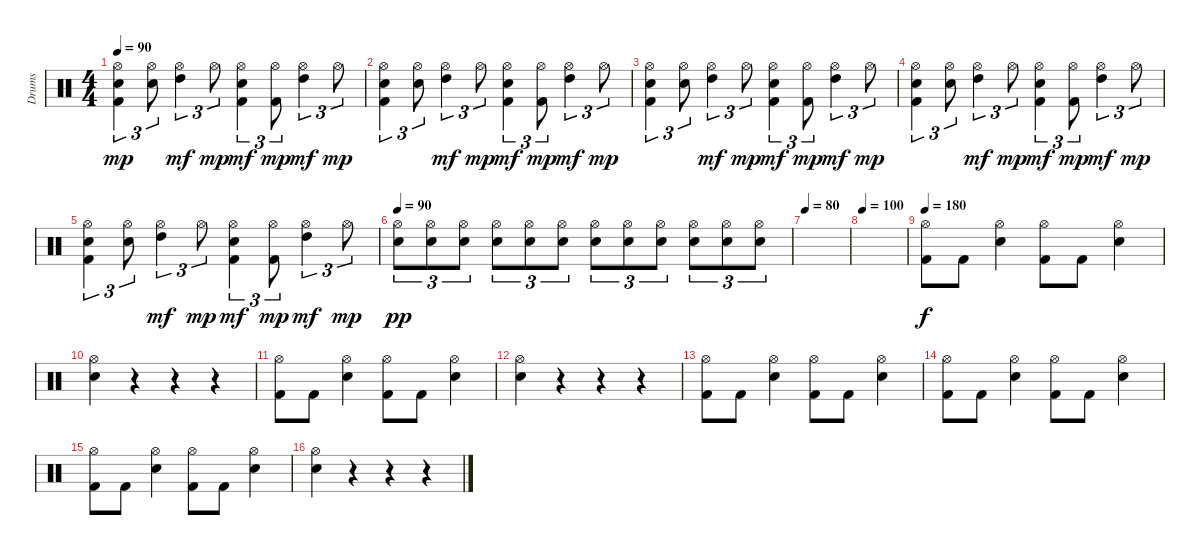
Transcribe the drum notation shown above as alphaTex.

\track ("Drums" "Drums") {instrument percussion}
\staff {score}
\articulation defaults
\ts (4 4)
\tempo 90
\clef neutral
\ks c
("Hi-Hat (open)" "Snare (hit) 2" "Kick (hit) 2").4{tu (3 2) dy mp} ("Hi-Hat (open)" "Snare (hit) 2").8{tu (3 2)} ("Hi-Hat (open)" "High Tom (hit)").4{tu (3 2) dy mf} "Hi-Hat (open)".8{tu (3 2) dy mp} ("Hi-Hat (open)" "Snare (hit) 2" "Kick (hit) 2").4{tu (3 2) dy mf} ("Hi-Hat (open)" "Kick (hit) 2").8{tu (3 2) dy mp} ("Hi-Hat (open)" "High Tom (hit)").4{tu (3 2) dy mf} "Hi-Hat (open)".8{tu (3 2) dy mp} |
("Hi-Hat (open)" "Snare (hit) 2" "Kick (hit) 2").4{tu (3 2)} ("Hi-Hat (open)" "Snare (hit) 2").8{tu (3 2)} ("Hi-Hat (open)" "High Tom (hit)").4{tu (3 2) dy mf} "Hi-Hat (open)".8{tu (3 2) dy mp} ("Hi-Hat (open)" "Snare (hit) 2" "Kick (hit) 2").4{tu (3 2) dy mf} ("Hi-Hat (open)" "Kick (hit) 2").8{tu (3 2) dy mp} ("Hi-Hat (open)" "High Tom (hit)").4{tu (3 2) dy mf} "Hi-Hat (open)".8{tu (3 2) dy mp} |
("Hi-Hat (open)" "Snare (hit) 2" "Kick (hit) 2").4{tu (3 2)} ("Hi-Hat (open)" "Snare (hit) 2").8{tu (3 2)} ("Hi-Hat (open)" "High Tom (hit)").4{tu (3 2) dy mf} "Hi-Hat (open)".8{tu (3 2) dy mp} ("Hi-Hat (open)" "Snare (hit) 2" "Kick (hit) 2").4{tu (3 2) dy mf} ("Hi-Hat (open)" "Kick (hit) 2").8{tu (3 2) dy mp} ("Hi-Hat (open)" "High Tom (hit)").4{tu (3 2) dy mf} "Hi-Hat (open)".8{tu (3 2) dy mp} |
("Hi-Hat (open)" "Snare (hit) 2" "Kick (hit) 2").4{tu (3 2)} ("Hi-Hat (open)" "Snare (hit) 2").8{tu (3 2)} ("Hi-Hat (open)" "High Tom (hit)").4{tu (3 2) dy mf} "Hi-Hat (open)".8{tu (3 2) dy mp} ("Hi-Hat (open)" "Snare (hit) 2" "Kick (hit) 2").4{tu (3 2) dy mf} ("Hi-Hat (open)" "Kick (hit) 2").8{tu (3 2) dy mp} ("Hi-Hat (open)" "High Tom (hit)").4{tu (3 2) dy mf} "Hi-Hat (open)".8{tu (3 2) dy mp} |
("Hi-Hat (open)" "Snare (hit) 2" "Kick (hit) 2").4{tu (3 2)} ("Hi-Hat (open)" "Snare (hit) 2").8{tu (3 2)} ("Hi-Hat (open)" "High Tom (hit)").4{tu (3 2) dy mf} "Hi-Hat (open)".8{tu (3 2) dy mp} ("Hi-Hat (open)" "Snare (hit) 2" "Kick (hit) 2").4{tu (3 2) dy mf} ("Hi-Hat (open)" "Kick (hit) 2").8{tu (3 2) dy mp} ("Hi-Hat (open)" "High Tom (hit)").4{tu (3 2) dy mf} "Hi-Hat (open)".8{tu (3 2) dy mp} |
\tempo 90
("Hi-Hat (open)" "Snare (hit) 2").8{tu (3 2) dy pp} ("Hi-Hat (open)" "Snare (hit) 2").8{tu (3 2)} ("Hi-Hat (open)" "Snare (hit) 2").8{tu (3 2)} ("Hi-Hat (open)" "Snare (hit) 2").8{tu (3 2)} ("Hi-Hat (open)" "Snare (hit) 2").8{tu (3 2)} ("Hi-Hat (open)" "Snare (hit) 2").8{tu (3 2)} ("Hi-Hat (open)" "Snare (hit) 2").8{tu (3 2)} ("Hi-Hat (open)" "Snare (hit) 2").8{tu (3 2)} ("Hi-Hat (open)" "Snare (hit) 2").8{tu (3 2)} ("Hi-Hat (open)" "Snare (hit) 2").8{tu (3 2)} ("Hi-Hat (open)" "Snare (hit) 2").8{tu (3 2)} ("Hi-Hat (open)" "Snare (hit) 2").8{tu (3 2)} |
\tempo 80
|
\tempo 100
|
\tempo 180
("Hi-Hat (open)" "Kick (hit) 2").8{dy f} "Kick (hit) 2".8 ("Hi-Hat (open)" "Snare (hit) 2").4 ("Hi-Hat (open)" "Kick (hit) 2").8 "Kick (hit) 2".8 ("Hi-Hat (open)" "Snare (hit) 2").4 |
("Hi-Hat (open)" "Snare (hit) 2").4 r.4 r.4 r.4 |
("Hi-Hat (open)" "Kick (hit) 2").8 "Kick (hit) 2".8 ("Hi-Hat (open)" "Snare (hit) 2").4 ("Hi-Hat (open)" "Kick (hit) 2").8 "Kick (hit) 2".8 ("Hi-Hat (open)" "Snare (hit) 2").4 |
("Hi-Hat (open)" "Snare (hit) 2").4 r.4 r.4 r.4 |
("Hi-Hat (open)" "Kick (hit) 2").8 "Kick (hit) 2".8 ("Hi-Hat (open)" "Snare (hit) 2").4 ("Hi-Hat (open)" "Kick (hit) 2").8 "Kick (hit) 2".8 ("Hi-Hat (open)" "Snare (hit) 2").4 |
("Hi-Hat (open)" "Kick (hit) 2").8 "Kick (hit) 2".8 ("Hi-Hat (open)" "Snare (hit) 2").4 ("Hi-Hat (open)" "Kick (hit) 2").8 "Kick (hit) 2".8 ("Hi-Hat (open)" "Snare (hit) 2").4 |
("Hi-Hat (open)" "Kick (hit) 2").8 "Kick (hit) 2".8 ("Hi-Hat (open)" "Snare (hit) 2").4 ("Hi-Hat (open)" "Kick (hit) 2").8 "Kick (hit) 2".8 ("Hi-Hat (open)" "Snare (hit) 2").4 |
("Hi-Hat (open)" "Snare (hit) 2").4 r.4 r.4 r.4
